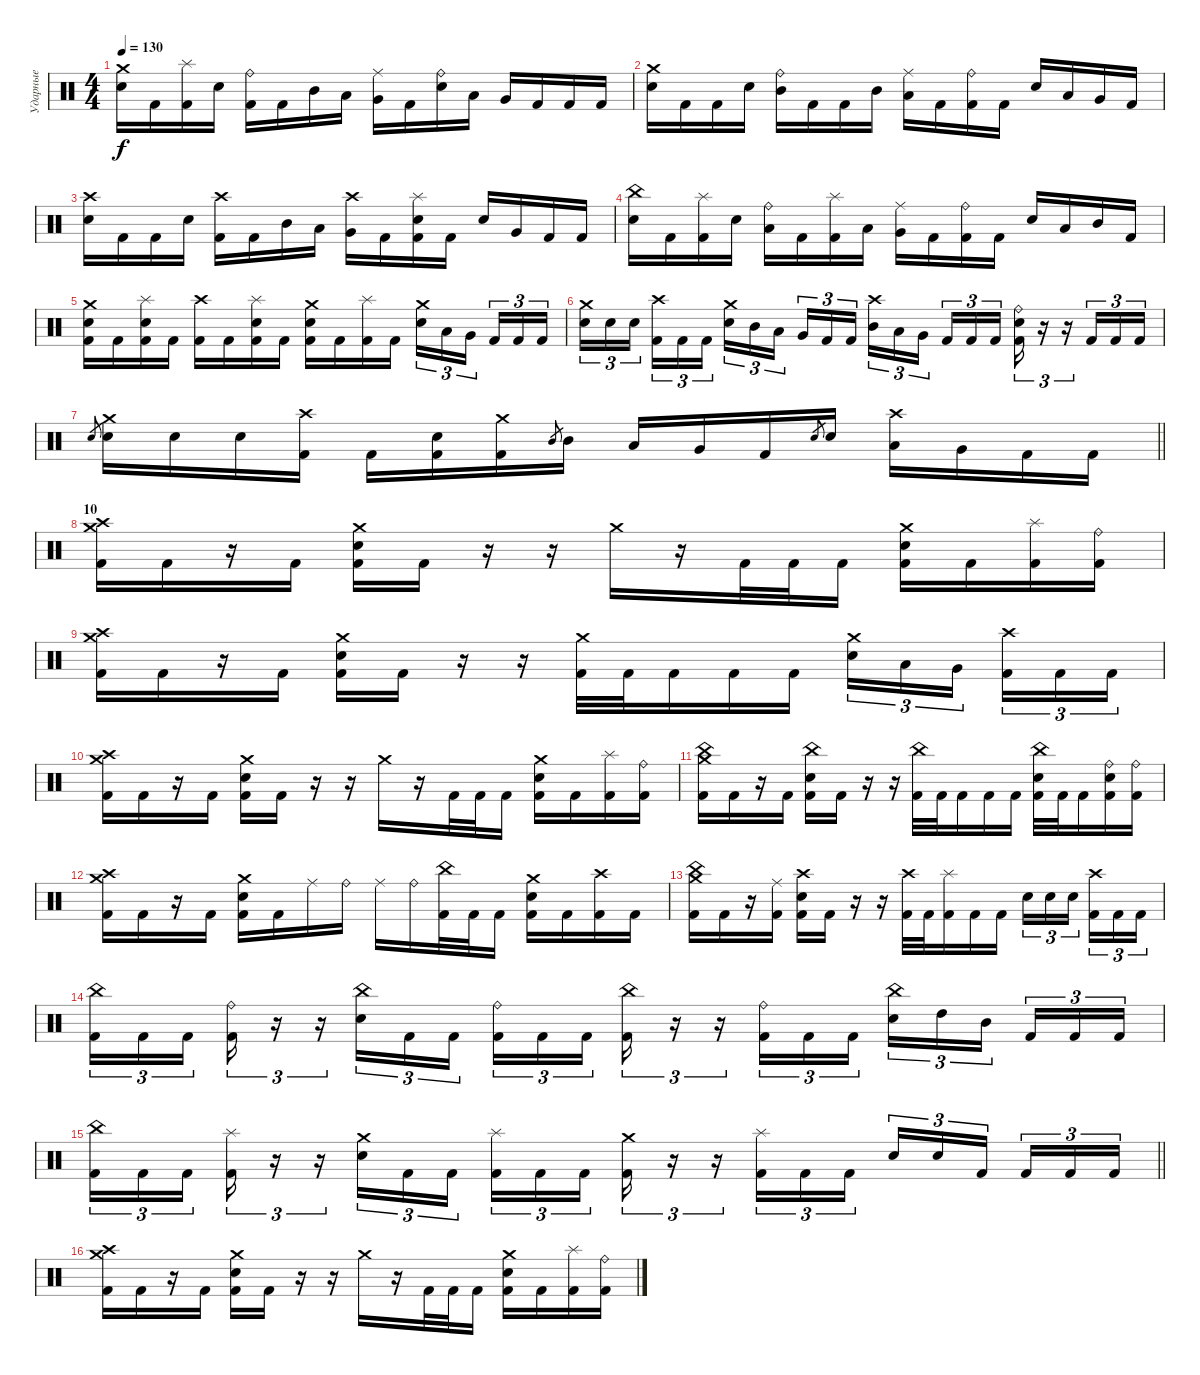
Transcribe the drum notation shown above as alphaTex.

\track ("Ударные" "Ударные") {instrument percussion}
\staff {score}
\articulation defaults
\ts (4 4)
\tempo 130
\clef neutral
\ks c
("Crash medium (hit)" "Electric Snare (hit)").16{dy f} "Kick (hit) 2".16 ("Splash (hit)" "Kick (hit) 2").16 "Electric Snare (hit)".16 ("Ride (bell)" "Kick (hit) 2").16 "Kick (hit) 2".16 "Mid Tom (hit)".16 "Low Tom (hit)".16 ("Ride (middle)" "Very Low Tom (hit)").16 "Kick (hit) 2".16 ("Ride (bell)" "Electric Snare (hit)").16 "Low Tom (hit)".16 "Very Low Tom (hit)".16 "Kick (hit) 2".16 "Kick (hit) 2".16 "Kick (hit) 2".16 |
("Crash medium (hit)" "Electric Snare (hit)").16 "Kick (hit) 2".16 "Kick (hit) 2".16 "Electric Snare (hit)".16 ("Ride (bell)" "Mid Tom (hit)").16 "Kick (hit) 2".16 "Kick (hit) 2".16 "Mid Tom (hit)".16 ("Ride (middle)" "Low Tom (hit)").16 "Kick (hit) 2".16 ("Ride (bell)" "Kick (hit) 2").16 "Kick (hit) 2".16 "Electric Snare (hit)".16 "Low Tom (hit)".16 "Very Low Tom (hit)".16 "Kick (hit) 2".16 |
("Crash high (hit)" "Electric Snare (hit)").16 "Kick (hit) 2".16 "Kick (hit) 2".16 "Electric Snare (hit)".16 ("Crash high (hit)" "Kick (hit) 2").16 "Kick (hit) 2".16 "Mid Tom (hit)".16 "Low Tom (hit)".16 ("Crash high (hit)" "Very Low Tom (hit)").16 "Kick (hit) 2".16 ("Splash (hit)" "Electric Snare (hit)" "Kick (hit) 2").16 "Kick (hit) 2".16 "Electric Snare (hit)".16 "Very Low Tom (hit)".16 "Kick (hit) 2".16 "Kick (hit) 2".16 |
("China (hit)" "Electric Snare (hit)").16 "Kick (hit) 2".16 ("Splash (hit)" "Kick (hit) 2").16 "Electric Snare (hit)".16 ("Ride (bell)" "Low Tom (hit)").16 "Kick (hit) 2".16 ("Splash (hit)" "Kick (hit) 2").16 "Low Tom (hit)".16 ("Ride (middle)" "Very Low Tom (hit)").16 "Kick (hit) 2".16 ("Ride (bell)" "Kick (hit) 2").16 "Kick (hit) 2".16 "Electric Snare (hit)".16 "Low Tom (hit)".16 "Mid Tom (hit)".16 "Kick (hit) 2".16 |
("Crash medium (hit)" "Electric Snare (hit)" "Kick (hit) 2").16 "Kick (hit) 2".16 ("Splash (hit)" "Electric Snare (hit)" "Kick (hit) 2").16 "Kick (hit) 2".16 ("Crash high (hit)" "Kick (hit) 2").16 "Kick (hit) 2".16 ("Splash (hit)" "Electric Snare (hit)" "Kick (hit) 2").16 "Kick (hit) 2".16 ("Crash medium (hit)" "Electric Snare (hit)" "Kick (hit) 2").16 "Kick (hit) 2".16 ("Splash (hit)" "Kick (hit) 2").16 "Kick (hit) 2".16 ("Crash medium (hit)" "Electric Snare (hit)").16{tu (3 2)} "Low Tom (hit)".16{tu (3 2)} "Very Low Tom (hit)".16{tu (3 2) beam splitsecondary} "Kick (hit) 2".16{tu (3 2)} "Kick (hit) 2".16{tu (3 2)} "Kick (hit) 2".16{tu (3 2)} |
("Crash medium (hit)" "Electric Snare (hit)").16{tu (3 2)} "Electric Snare (hit)".16{tu (3 2)} "Electric Snare (hit)".16{tu (3 2) beam splitsecondary} ("Crash high (hit)" "Kick (hit) 2").16{tu (3 2)} "Kick (hit) 2".16{tu (3 2)} "Kick (hit) 2".16{tu (3 2)} ("Crash medium (hit)" "Electric Snare (hit)").16{tu (3 2)} "Mid Tom (hit)".16{tu (3 2)} "Low Tom (hit)".16{tu (3 2) beam splitsecondary} "Very Low Tom (hit)".16{tu (3 2)} "Kick (hit) 2".16{tu (3 2)} "Kick (hit) 2".16{tu (3 2)} ("Crash high (hit)" "Mid Tom (hit)").16{tu (3 2)} "Low Tom (hit)".16{tu (3 2)} "Very Low Tom (hit)".16{tu (3 2) beam splitsecondary} "Kick (hit) 2".16{tu (3 2)} "Kick (hit) 2".16{tu (3 2)} "Kick (hit) 2".16{tu (3 2)} ("Ride (bell)" "Electric Snare (hit)" "Kick (hit) 2").16{tu (3 2)} r.16{tu (3 2)} r.16{tu (3 2)} "Kick (hit) 2".16{tu (3 2)} "Kick (hit) 2".16{tu (3 2)} "Kick (hit) 2".16{tu (3 2)} |
\barLineRight lightlight "Electric Snare (hit)".8{gr}
("Crash medium (hit)" "Electric Snare (hit)").16 "Electric Snare (hit)".16 "Electric Snare (hit)".16 ("Crash high (hit)" "Kick (hit) 2").16 "Kick (hit) 2".16 ("Electric Snare (hit)" "Kick (hit) 2").16 ("Crash medium (hit)" "Kick (hit) 2").16 "Mid Tom (hit)".8{gr} "Mid Tom (hit)".16 "Low Tom (hit)".16 "Very Low Tom (hit)".16 "Kick (hit) 2".16 "Electric Snare (hit)".8{gr} "Electric Snare (hit)".16 ("Crash high (hit)" "Low Tom (hit)").16 "Very Low Tom (hit)".16 "Kick (hit) 2".16 "Kick (hit) 2".16 |
\section ("" "10")
("Crash medium (hit)" "Crash high (hit)" "Kick (hit) 2").16 "Kick (hit) 2".16 r.16 "Kick (hit) 2".16 ("Crash medium (hit)" "Electric Snare (hit)" "Kick (hit) 2").16 "Kick (hit) 2".16 r.16 r.16 "Crash medium (hit)".16 r.16 "Kick (hit) 2".32 "Kick (hit) 2".32 "Kick (hit) 2".16 ("Crash medium (hit)" "Electric Snare (hit)" "Kick (hit) 2").16 "Kick (hit) 2".16 ("Splash (hit)" "Kick (hit) 2").16 ("Ride (bell)" "Kick (hit) 2").16 |
("Crash medium (hit)" "Crash high (hit)" "Kick (hit) 2").16 "Kick (hit) 2".16 r.16 "Kick (hit) 2".16 ("Crash medium (hit)" "Electric Snare (hit)" "Kick (hit) 2").16 "Kick (hit) 2".16 r.16 r.16 ("Crash medium (hit)" "Kick (hit) 2").32 "Kick (hit) 2".32 "Kick (hit) 2".16 "Kick (hit) 2".16 "Kick (hit) 2".16 ("Crash medium (hit)" "Electric Snare (hit)").16{tu (3 2)} "Low Tom (hit)".16{tu (3 2)} "Very Low Tom (hit)".16{tu (3 2) beam splitsecondary} ("Crash high (hit)" "Kick (hit) 2").16{tu (3 2)} "Kick (hit) 2".16{tu (3 2)} "Kick (hit) 2".16{tu (3 2)} |
("Crash medium (hit)" "Crash high (hit)" "Kick (hit) 2").16 "Kick (hit) 2".16 r.16 "Kick (hit) 2".16 ("Crash medium (hit)" "Electric Snare (hit)" "Kick (hit) 2").16 "Kick (hit) 2".16 r.16 r.16 "Crash medium (hit)".16 r.16 "Kick (hit) 2".32 "Kick (hit) 2".32 "Kick (hit) 2".16 ("Crash medium (hit)" "Electric Snare (hit)" "Kick (hit) 2").16 "Kick (hit) 2".16 ("Splash (hit)" "Kick (hit) 2").16 ("Ride (bell)" "Kick (hit) 2").16 |
("China (hit)" "Crash medium (hit)" "Kick (hit) 2").16 "Kick (hit) 2".16 r.16 "Kick (hit) 2".16 ("China (hit)" "Electric Snare (hit)" "Kick (hit) 2").16 "Kick (hit) 2".16 r.16 r.16 ("China (hit)" "Kick (hit) 2").32 "Kick (hit) 2".32 "Kick (hit) 2".16 "Kick (hit) 2".16 "Kick (hit) 2".16 ("China (hit)" "Electric Snare (hit)" "Kick (hit) 2").32 "Kick (hit) 2".32 "Kick (hit) 2".16 ("Ride (bell)" "Electric Snare (hit)" "Kick (hit) 2").16 ("Ride (bell)" "Kick (hit) 2").16 |
("Crash medium (hit)" "Crash high (hit)" "Kick (hit) 2").16 "Kick (hit) 2".16 r.16 "Kick (hit) 2".16 ("Crash medium (hit)" "Electric Snare (hit)" "Kick (hit) 2").16 "Kick (hit) 2".16 "Ride (middle)".16 "Ride (bell)".16 "Ride (middle)".16 "Ride (bell)".16 ("China (hit)" "Kick (hit) 2").32 "Kick (hit) 2".32 "Kick (hit) 2".16 ("Crash medium (hit)" "Electric Snare (hit)" "Kick (hit) 2").16 "Kick (hit) 2".16 ("Crash high (hit)" "Kick (hit) 2").16 "Kick (hit) 2".16 |
("China (hit)" "Crash medium (hit)" "Kick (hit) 2").16 "Kick (hit) 2".16 r.16 ("Ride (middle)" "Kick (hit) 2").16 ("Crash high (hit)" "Electric Snare (hit)" "Kick (hit) 2").16 "Kick (hit) 2".16 r.16 r.16 ("Crash high (hit)" "Kick (hit) 2").32 "Kick (hit) 2".32 ("Splash (hit)" "Kick (hit) 2").16 "Kick (hit) 2".16 "Kick (hit) 2".16 "Electric Snare (hit)".16{tu (3 2)} "Electric Snare (hit)".16{tu (3 2)} "Electric Snare (hit)".16{tu (3 2) beam splitsecondary} ("Crash high (hit)" "Kick (hit) 2").16{tu (3 2)} "Kick (hit) 2".16{tu (3 2)} "Kick (hit) 2".16{tu (3 2)} |
("China (hit)" "Kick (hit) 2").16{tu (3 2)} "Kick (hit) 2".16{tu (3 2)} "Kick (hit) 2".16{tu (3 2) beam splitsecondary} ("Ride (bell)" "Kick (hit) 2").16{tu (3 2)} r.16{tu (3 2)} r.16{tu (3 2)} ("China (hit)" "Electric Snare (hit)").16{tu (3 2)} "Kick (hit) 2".16{tu (3 2)} "Kick (hit) 2".16{tu (3 2) beam splitsecondary} ("Ride (bell)" "Kick (hit) 2").16{tu (3 2)} "Kick (hit) 2".16{tu (3 2)} "Kick (hit) 2".16{tu (3 2)} ("China (hit)" "Kick (hit) 2").16{tu (3 2)} r.16{tu (3 2)} r.16{tu (3 2)} ("Ride (bell)" "Kick (hit) 2").16{tu (3 2)} "Kick (hit) 2".16{tu (3 2)} "Kick (hit) 2".16{tu (3 2)} ("China (hit)" "Electric Snare (hit)").16{tu (3 2)} "High Tom (hit)".16{tu (3 2)} "Mid Tom (hit)".16{tu (3 2) beam splitsecondary} "Kick (hit) 2".16{tu (3 2)} "Kick (hit) 2".16{tu (3 2)} "Kick (hit) 2".16{tu (3 2)} |
\barLineRight lightlight
("China (hit)" "Kick (hit) 2").16{tu (3 2)} "Kick (hit) 2".16{tu (3 2)} "Kick (hit) 2".16{tu (3 2) beam splitsecondary} ("Splash (hit)" "Kick (hit) 2").16{tu (3 2)} r.16{tu (3 2)} r.16{tu (3 2)} ("Crash medium (hit)" "Electric Snare (hit)").16{tu (3 2)} "Kick (hit) 2".16{tu (3 2)} "Kick (hit) 2".16{tu (3 2) beam splitsecondary} ("Splash (hit)" "Kick (hit) 2").16{tu (3 2)} "Kick (hit) 2".16{tu (3 2)} "Kick (hit) 2".16{tu (3 2)} ("Crash medium (hit)" "Kick (hit) 2").16{tu (3 2)} r.16{tu (3 2)} r.16{tu (3 2)} ("Splash (hit)" "Kick (hit) 2").16{tu (3 2)} "Kick (hit) 2".16{tu (3 2)} "Kick (hit) 2".16{tu (3 2)} "Electric Snare (hit)".16{tu (3 2)} "Electric Snare (hit)".16{tu (3 2)} "Kick (hit) 2".16{tu (3 2) beam splitsecondary} "Kick (hit) 2".16{tu (3 2)} "Kick (hit) 2".16{tu (3 2)} "Kick (hit) 2".16{tu (3 2)} |
("Crash medium (hit)" "Crash high (hit)" "Kick (hit) 2").16 "Kick (hit) 2".16 r.16 "Kick (hit) 2".16 ("Crash medium (hit)" "Electric Snare (hit)" "Kick (hit) 2").16 "Kick (hit) 2".16 r.16 r.16 "Crash medium (hit)".16 r.16 "Kick (hit) 2".32 "Kick (hit) 2".32 "Kick (hit) 2".16 ("Crash medium (hit)" "Electric Snare (hit)" "Kick (hit) 2").16 "Kick (hit) 2".16 ("Splash (hit)" "Kick (hit) 2").16 ("Ride (bell)" "Kick (hit) 2").16
